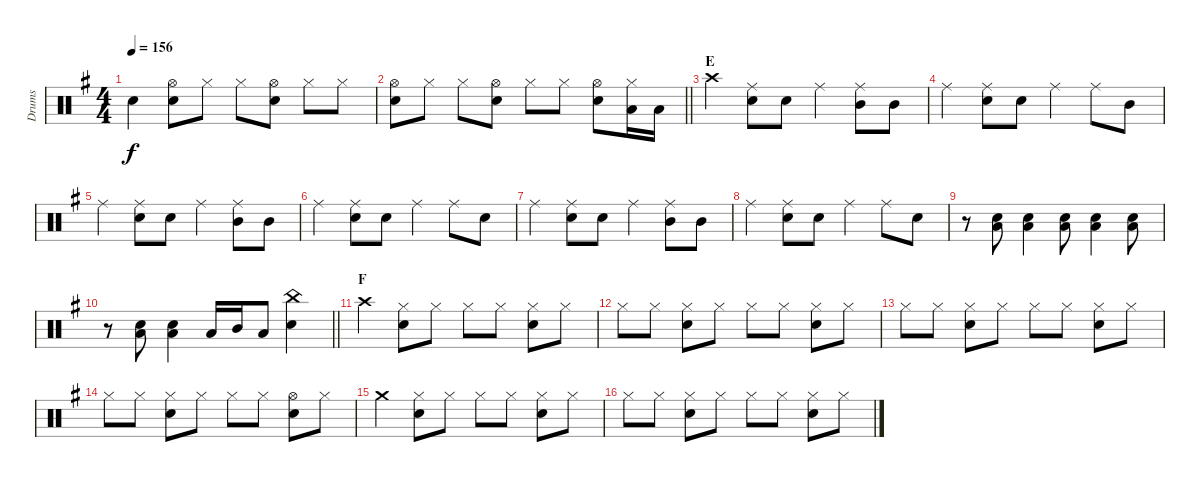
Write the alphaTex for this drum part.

\track ("Drums" "Drums") {instrument percussion}
\staff {score}
\articulation defaults
\ts (4 4)
\tempo 156
\clef neutral
\ks g "Snare (hit)"{t}.4{dy f}
("Hi-Hat (open)" "Snare (hit) 2").8 "Hi-Hat (closed)".8 "Hi-Hat (closed)".8 ("Hi-Hat (open)" "Snare (hit) 2").8 "Hi-Hat (closed)".8 "Hi-Hat (closed)".8 |
\barLineRight lightlight
("Hi-Hat (open)" "Snare (hit) 2").8 "Hi-Hat (closed)".8 "Hi-Hat (closed)".8 ("Hi-Hat (open)" "Snare (hit) 2").8 "Hi-Hat (closed)".8 "Hi-Hat (closed)".8 ("Hi-Hat (open)" "Snare (hit) 2").8 ("Hi-Hat (closed)" "Low Tom (hit)").16 "Low Tom (hit)".16 |
\section ("" "E")
"Crash high (hit)".4 ("Ride (middle)" "Snare (hit) 2").8 "Snare (hit) 2".8 "Ride (middle)".4 ("Ride (middle)" "Mid Tom (hit)").8 "Mid Tom (hit)".8 |
"Ride (middle)".4 ("Ride (middle)" "Snare (hit) 2").8 "Snare (hit) 2".8 "Ride (middle)".4 "Ride (middle)".8 "Mid Tom (hit)".8 |
"Ride (middle)".4 ("Ride (middle)" "Snare (hit) 2").8 "Snare (hit) 2".8 "Ride (middle)".4 ("Ride (middle)" "Mid Tom (hit)").8 "Mid Tom (hit)".8 |
"Ride (middle)".4 ("Ride (middle)" "Snare (hit) 2").8 "Snare (hit) 2".8 "Ride (middle)".4 "Ride (middle)".8 "Snare (hit) 2".8 |
"Ride (middle)".4 ("Ride (middle)" "Snare (hit) 2").8 "Snare (hit) 2".8 "Ride (middle)".4 ("Mid Tom (hit)" "Ride (middle)").8 "Mid Tom (hit)".8 |
"Ride (middle)".4 ("Ride (middle)" "Snare (hit) 2").8 "Snare (hit) 2".8 "Ride (middle)".4 "Ride (middle)".8 "Snare (hit) 2".8 |
r.8 ("Snare (hit) 2" "Low Tom (hit)").8 ("Snare (hit) 2" "Low Tom (hit)").4 ("Snare (hit) 2" "Low Tom (hit)").8 ("Snare (hit) 2" "Low Tom (hit)").4 ("Snare (hit) 2" "Low Tom (hit)").8 |
\barLineRight lightlight
r.8 ("Snare (hit) 2" "Low Tom (hit)").8 ("Snare (hit) 2" "Low Tom (hit)").4 "Low Tom (hit)".16 "Mid Tom (hit)".16 "Low Tom (hit)".8 ("Snare (hit) 2" "China (hit)").4 |
\section ("" "F")
"Crash high (hit)".4 ("Hi-Hat (closed)" "Snare (hit) 2").8 "Hi-Hat (closed)".8 "Hi-Hat (closed)".8 "Hi-Hat (closed)".8 ("Hi-Hat (closed)" "Snare (hit) 2").8 "Hi-Hat (closed)".8 |
"Hi-Hat (closed)".8 "Hi-Hat (closed)".8 ("Hi-Hat (closed)" "Snare (hit) 2").8 "Hi-Hat (closed)".8 "Hi-Hat (closed)".8 "Hi-Hat (closed)".8 ("Hi-Hat (closed)" "Snare (hit) 2").8 "Hi-Hat (closed)".8 |
"Hi-Hat (closed)".8 "Hi-Hat (closed)".8 ("Hi-Hat (closed)" "Snare (hit) 2").8 "Hi-Hat (closed)".8 "Hi-Hat (closed)".8 "Hi-Hat (closed)".8 ("Hi-Hat (closed)" "Snare (hit) 2").8 "Hi-Hat (closed)".8 |
"Hi-Hat (closed)".8 "Hi-Hat (closed)".8 ("Hi-Hat (closed)" "Snare (hit) 2").8 "Hi-Hat (closed)".8 "Hi-Hat (closed)".8 "Hi-Hat (closed)".8 ("Hi-Hat (open)" "Snare (hit) 2").8 "Hi-Hat (closed)".8 |
"Crash medium (hit)".4 ("Hi-Hat (closed)" "Snare (hit) 2").8 "Hi-Hat (closed)".8 "Hi-Hat (closed)".8 "Hi-Hat (closed)".8 ("Hi-Hat (closed)" "Snare (hit) 2").8 "Hi-Hat (closed)".8 |
"Hi-Hat (closed)".8 "Hi-Hat (closed)".8 ("Hi-Hat (closed)" "Snare (hit) 2").8 "Hi-Hat (closed)".8 "Hi-Hat (closed)".8 "Hi-Hat (closed)".8 ("Hi-Hat (closed)" "Snare (hit) 2").8 "Hi-Hat (closed)".8
